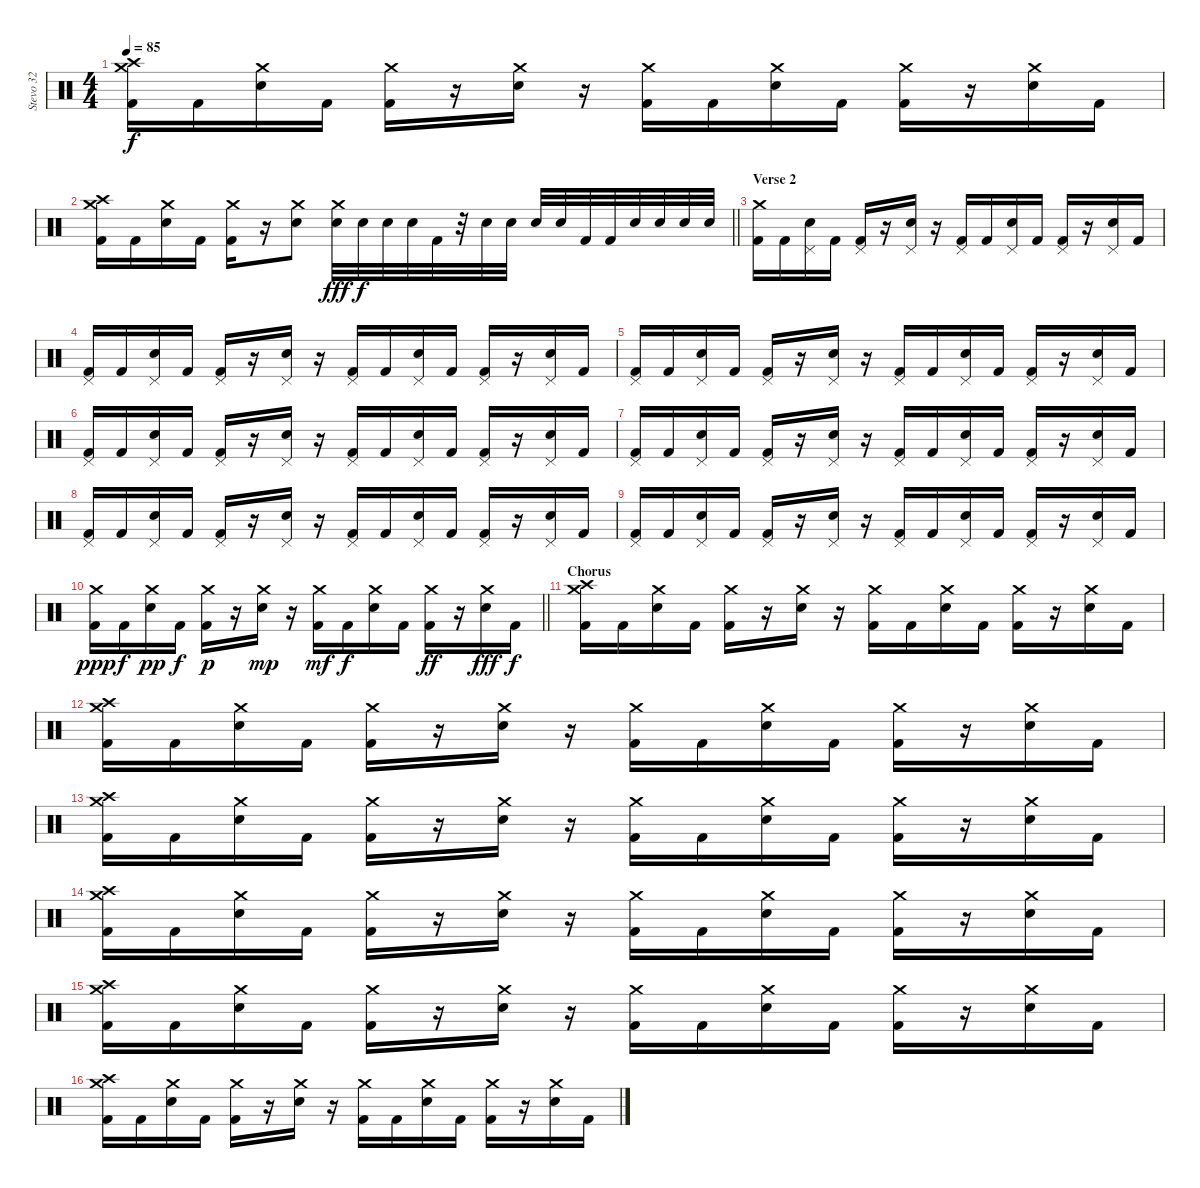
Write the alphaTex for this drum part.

\track ("Stevo 32" "Stevo 32") {instrument percussion}
\staff {score}
\articulation defaults
\ts (4 4)
\tempo 85
\clef neutral
\ks c
("Crash high (hit)" "Crash medium (hit)" "Kick (hit) 2").16{dy f} "Kick (hit) 2".16 ("Crash medium (hit)" "Electric Snare (hit)").16 "Kick (hit) 2".16 ("Crash medium (hit)" "Kick (hit) 2").16 r.16 ("Crash medium (hit)" "Electric Snare (hit)").16 r.16 ("Crash medium (hit)" "Kick (hit) 2").16 "Kick (hit) 2".16 ("Crash medium (hit)" "Electric Snare (hit)").16 "Kick (hit) 2".16 ("Crash medium (hit)" "Kick (hit) 2").16 r.16 ("Crash medium (hit)" "Electric Snare (hit)").16 "Kick (hit) 2".16 |
\barLineRight lightlight
("Crash high (hit)" "Crash medium (hit)" "Kick (hit) 2").16 "Kick (hit) 2".16 ("Crash medium (hit)" "Electric Snare (hit)").16 "Kick (hit) 2".16 ("Crash medium (hit)" "Kick (hit) 2").16 r.16 ("Crash medium (hit)" "Electric Snare (hit)").8 ("Crash medium (hit)" "Electric Snare (hit)").32{dy fff} "Electric Snare (hit)".32{dy f} "Electric Snare (hit)".32 "Electric Snare (hit)".32 "Kick (hit) 2".32 r.32 "Electric Snare (hit)".32 "Electric Snare (hit)".32 "Electric Snare (hit)".32 "Electric Snare (hit)".32 "Kick (hit) 2".32 "Kick (hit) 2".32 "Electric Snare (hit)".32 "Electric Snare (hit)".32 "Electric Snare (hit)".32 "Electric Snare (hit)".32 |
\section ("" "Verse 2")
("Crash medium (hit)" "Kick (hit) 2").16 "Kick (hit) 2".16 ("Pedal Hi-Hat (hit)" "Electric Snare (hit)").16 "Kick (hit) 2".16 ("Pedal Hi-Hat (hit)" "Kick (hit) 2").16 r.16 ("Pedal Hi-Hat (hit)" "Electric Snare (hit)").16 r.16 ("Pedal Hi-Hat (hit)" "Kick (hit) 2").16 "Kick (hit) 2".16 ("Pedal Hi-Hat (hit)" "Electric Snare (hit)").16 "Kick (hit) 2".16 ("Pedal Hi-Hat (hit)" "Kick (hit) 2").16 r.16 ("Pedal Hi-Hat (hit)" "Electric Snare (hit)").16 "Kick (hit) 2".16 |
("Pedal Hi-Hat (hit)" "Kick (hit) 2").16 "Kick (hit) 2".16 ("Pedal Hi-Hat (hit)" "Electric Snare (hit)").16 "Kick (hit) 2".16 ("Pedal Hi-Hat (hit)" "Kick (hit) 2").16 r.16 ("Pedal Hi-Hat (hit)" "Electric Snare (hit)").16 r.16 ("Pedal Hi-Hat (hit)" "Kick (hit) 2").16 "Kick (hit) 2".16 ("Pedal Hi-Hat (hit)" "Electric Snare (hit)").16 "Kick (hit) 2".16 ("Pedal Hi-Hat (hit)" "Kick (hit) 2").16 r.16 ("Pedal Hi-Hat (hit)" "Electric Snare (hit)").16 "Kick (hit) 2".16 |
("Pedal Hi-Hat (hit)" "Kick (hit) 2").16 "Kick (hit) 2".16 ("Pedal Hi-Hat (hit)" "Electric Snare (hit)").16 "Kick (hit) 2".16 ("Pedal Hi-Hat (hit)" "Kick (hit) 2").16 r.16 ("Pedal Hi-Hat (hit)" "Electric Snare (hit)").16 r.16 ("Pedal Hi-Hat (hit)" "Kick (hit) 2").16 "Kick (hit) 2".16 ("Pedal Hi-Hat (hit)" "Electric Snare (hit)").16 "Kick (hit) 2".16 ("Pedal Hi-Hat (hit)" "Kick (hit) 2").16 r.16 ("Pedal Hi-Hat (hit)" "Electric Snare (hit)").16 "Kick (hit) 2".16 |
("Pedal Hi-Hat (hit)" "Kick (hit) 2").16 "Kick (hit) 2".16 ("Pedal Hi-Hat (hit)" "Electric Snare (hit)").16 "Kick (hit) 2".16 ("Pedal Hi-Hat (hit)" "Kick (hit) 2").16 r.16 ("Pedal Hi-Hat (hit)" "Electric Snare (hit)").16 r.16 ("Pedal Hi-Hat (hit)" "Kick (hit) 2").16 "Kick (hit) 2".16 ("Pedal Hi-Hat (hit)" "Electric Snare (hit)").16 "Kick (hit) 2".16 ("Pedal Hi-Hat (hit)" "Kick (hit) 2").16 r.16 ("Pedal Hi-Hat (hit)" "Electric Snare (hit)").16 "Kick (hit) 2".16 |
("Pedal Hi-Hat (hit)" "Kick (hit) 2").16 "Kick (hit) 2".16 ("Pedal Hi-Hat (hit)" "Electric Snare (hit)").16 "Kick (hit) 2".16 ("Pedal Hi-Hat (hit)" "Kick (hit) 2").16 r.16 ("Pedal Hi-Hat (hit)" "Electric Snare (hit)").16 r.16 ("Pedal Hi-Hat (hit)" "Kick (hit) 2").16 "Kick (hit) 2".16 ("Pedal Hi-Hat (hit)" "Electric Snare (hit)").16 "Kick (hit) 2".16 ("Pedal Hi-Hat (hit)" "Kick (hit) 2").16 r.16 ("Pedal Hi-Hat (hit)" "Electric Snare (hit)").16 "Kick (hit) 2".16 |
("Pedal Hi-Hat (hit)" "Kick (hit) 2").16 "Kick (hit) 2".16 ("Pedal Hi-Hat (hit)" "Electric Snare (hit)").16 "Kick (hit) 2".16 ("Pedal Hi-Hat (hit)" "Kick (hit) 2").16 r.16 ("Pedal Hi-Hat (hit)" "Electric Snare (hit)").16 r.16 ("Pedal Hi-Hat (hit)" "Kick (hit) 2").16 "Kick (hit) 2".16 ("Pedal Hi-Hat (hit)" "Electric Snare (hit)").16 "Kick (hit) 2".16 ("Pedal Hi-Hat (hit)" "Kick (hit) 2").16 r.16 ("Pedal Hi-Hat (hit)" "Electric Snare (hit)").16 "Kick (hit) 2".16 |
("Pedal Hi-Hat (hit)" "Kick (hit) 2").16 "Kick (hit) 2".16 ("Pedal Hi-Hat (hit)" "Electric Snare (hit)").16 "Kick (hit) 2".16 ("Pedal Hi-Hat (hit)" "Kick (hit) 2").16 r.16 ("Pedal Hi-Hat (hit)" "Electric Snare (hit)").16 r.16 ("Pedal Hi-Hat (hit)" "Kick (hit) 2").16 "Kick (hit) 2".16 ("Pedal Hi-Hat (hit)" "Electric Snare (hit)").16 "Kick (hit) 2".16 ("Pedal Hi-Hat (hit)" "Kick (hit) 2").16 r.16 ("Pedal Hi-Hat (hit)" "Electric Snare (hit)").16 "Kick (hit) 2".16 |
\barLineRight lightlight
("Crash medium (hit)" "Kick (hit) 2").16{dy ppp} "Kick (hit) 2".16{dy f} ("Crash medium (hit)" "Electric Snare (hit)").16{dy pp} "Kick (hit) 2".16{dy f} ("Crash medium (hit)" "Kick (hit) 2").16{dy p} r.16 ("Crash medium (hit)" "Electric Snare (hit)").16{dy mp} r.16 ("Crash medium (hit)" "Kick (hit) 2").16{dy mf} "Kick (hit) 2".16{dy f} ("Crash medium (hit)" "Electric Snare (hit)").16 "Kick (hit) 2".16 ("Crash medium (hit)" "Kick (hit) 2").16{dy ff} r.16 ("Crash medium (hit)" "Electric Snare (hit)").16{dy fff} "Kick (hit) 2".16{dy f} |
\section ("" "Chorus")
("Crash high (hit)" "Crash medium (hit)" "Kick (hit) 2").16 "Kick (hit) 2".16 ("Crash medium (hit)" "Electric Snare (hit)").16 "Kick (hit) 2".16 ("Crash medium (hit)" "Kick (hit) 2").16 r.16 ("Crash medium (hit)" "Electric Snare (hit)").16 r.16 ("Crash medium (hit)" "Kick (hit) 2").16 "Kick (hit) 2".16 ("Crash medium (hit)" "Electric Snare (hit)").16 "Kick (hit) 2".16 ("Crash medium (hit)" "Kick (hit) 2").16 r.16 ("Crash medium (hit)" "Electric Snare (hit)").16 "Kick (hit) 2".16 |
("Crash high (hit)" "Crash medium (hit)" "Kick (hit) 2").16 "Kick (hit) 2".16 ("Crash medium (hit)" "Electric Snare (hit)").16 "Kick (hit) 2".16 ("Crash medium (hit)" "Kick (hit) 2").16 r.16 ("Crash medium (hit)" "Electric Snare (hit)").16 r.16 ("Crash medium (hit)" "Kick (hit) 2").16 "Kick (hit) 2".16 ("Crash medium (hit)" "Electric Snare (hit)").16 "Kick (hit) 2".16 ("Crash medium (hit)" "Kick (hit) 2").16 r.16 ("Crash medium (hit)" "Electric Snare (hit)").16 "Kick (hit) 2".16 |
("Crash high (hit)" "Crash medium (hit)" "Kick (hit) 2").16 "Kick (hit) 2".16 ("Crash medium (hit)" "Electric Snare (hit)").16 "Kick (hit) 2".16 ("Crash medium (hit)" "Kick (hit) 2").16 r.16 ("Crash medium (hit)" "Electric Snare (hit)").16 r.16 ("Crash medium (hit)" "Kick (hit) 2").16 "Kick (hit) 2".16 ("Crash medium (hit)" "Electric Snare (hit)").16 "Kick (hit) 2".16 ("Crash medium (hit)" "Kick (hit) 2").16 r.16 ("Crash medium (hit)" "Electric Snare (hit)").16 "Kick (hit) 2".16 |
("Crash high (hit)" "Crash medium (hit)" "Kick (hit) 2").16 "Kick (hit) 2".16 ("Crash medium (hit)" "Electric Snare (hit)").16 "Kick (hit) 2".16 ("Crash medium (hit)" "Kick (hit) 2").16 r.16 ("Crash medium (hit)" "Electric Snare (hit)").16 r.16 ("Crash medium (hit)" "Kick (hit) 2").16 "Kick (hit) 2".16 ("Crash medium (hit)" "Electric Snare (hit)").16 "Kick (hit) 2".16 ("Crash medium (hit)" "Kick (hit) 2").16 r.16 ("Crash medium (hit)" "Electric Snare (hit)").16 "Kick (hit) 2".16 |
("Crash high (hit)" "Crash medium (hit)" "Kick (hit) 2").16 "Kick (hit) 2".16 ("Crash medium (hit)" "Electric Snare (hit)").16 "Kick (hit) 2".16 ("Crash medium (hit)" "Kick (hit) 2").16 r.16 ("Crash medium (hit)" "Electric Snare (hit)").16 r.16 ("Crash medium (hit)" "Kick (hit) 2").16 "Kick (hit) 2".16 ("Crash medium (hit)" "Electric Snare (hit)").16 "Kick (hit) 2".16 ("Crash medium (hit)" "Kick (hit) 2").16 r.16 ("Crash medium (hit)" "Electric Snare (hit)").16 "Kick (hit) 2".16 |
("Crash high (hit)" "Crash medium (hit)" "Kick (hit) 2").16 "Kick (hit) 2".16 ("Crash medium (hit)" "Electric Snare (hit)").16 "Kick (hit) 2".16 ("Crash medium (hit)" "Kick (hit) 2").16 r.16 ("Crash medium (hit)" "Electric Snare (hit)").16 r.16 ("Crash medium (hit)" "Kick (hit) 2").16 "Kick (hit) 2".16 ("Crash medium (hit)" "Electric Snare (hit)").16 "Kick (hit) 2".16 ("Crash medium (hit)" "Kick (hit) 2").16 r.16 ("Crash medium (hit)" "Electric Snare (hit)").16 "Kick (hit) 2".16
